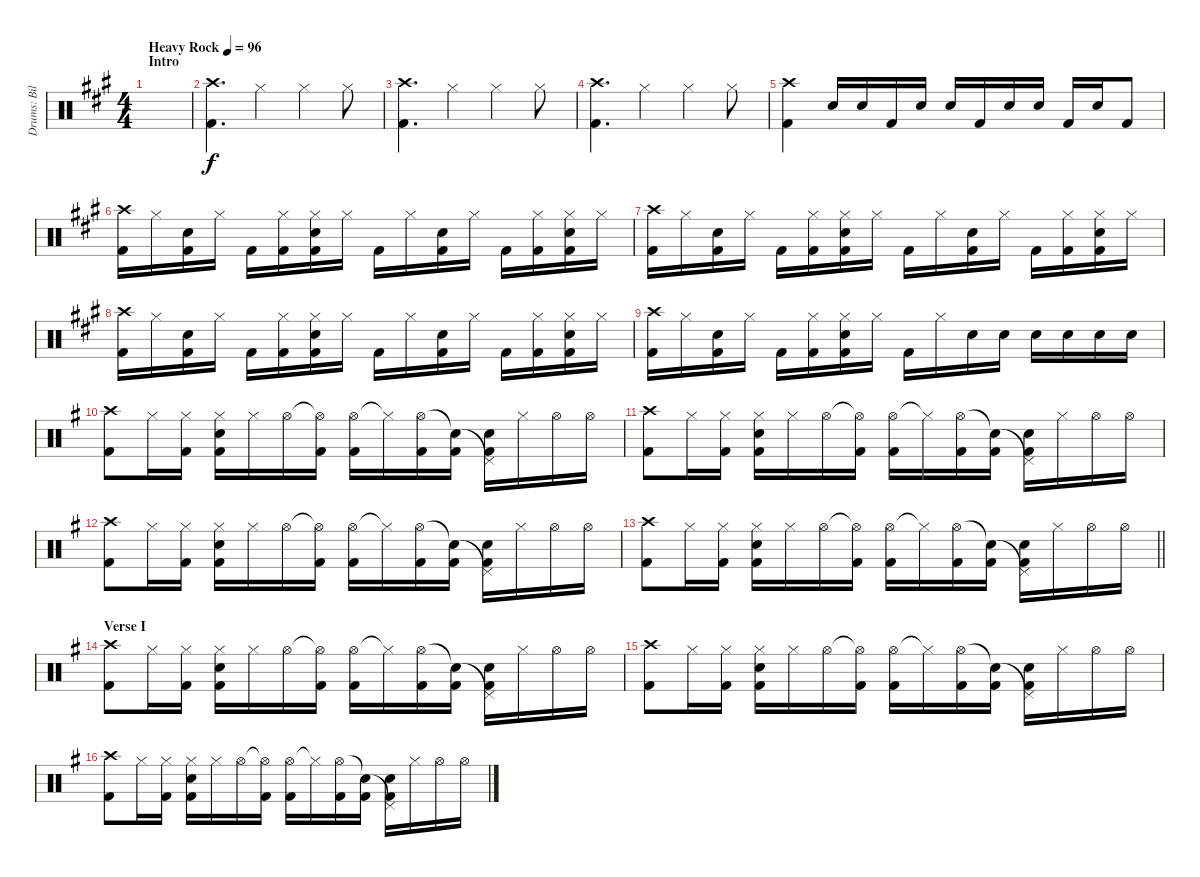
\track ("Drums: Bill" "Drums: Bil") {instrument percussion}
\staff {score}
\articulation defaults
\ts (4 4)
\section ("" "Intro")
\tempo (96 "Heavy Rock")
\clef neutral
\ks a
|
("Crash high (hit)" "Kick (hit) 2").4{d} "Hi-Hat (closed)".4 "Hi-Hat (closed)".4 "Hi-Hat (closed)".8 |
("Crash high (hit)" "Kick (hit) 2").4{d} "Hi-Hat (closed)".4 "Hi-Hat (closed)".4 "Hi-Hat (closed)".8 |
("Crash high (hit)" "Kick (hit) 2").4{d} "Hi-Hat (closed)".4 "Hi-Hat (closed)".4 "Hi-Hat (closed)".8 |
("Crash high (hit)" "Kick (hit) 2").4 "Electric Snare (hit)".16 "Electric Snare (hit)".16 "Kick (hit) 2".16 "Electric Snare (hit)".16 "Electric Snare (hit)".16 "Kick (hit) 2".16 "Electric Snare (hit)".16 "Electric Snare (hit)".16 "Kick (hit) 2".16 "Electric Snare (hit)".16 "Kick (hit) 2".8 |
("Crash high (hit)" "Kick (hit) 2").16 "Hi-Hat (closed)".16 ("Snare (hit) 2" "Kick (hit) 2").16 "Hi-Hat (closed)".16 "Kick (hit) 2".16 ("Hi-Hat (closed)" "Kick (hit) 2").16 ("Hi-Hat (closed)" "Snare (hit) 2" "Kick (hit) 2").16 "Hi-Hat (closed)".16 "Kick (hit) 2".16 "Hi-Hat (closed)".16 ("Snare (hit) 2" "Kick (hit) 2").16 "Hi-Hat (closed)".16 "Kick (hit) 2".16 ("Hi-Hat (closed)" "Kick (hit) 2").16 ("Hi-Hat (closed)" "Snare (hit) 2" "Kick (hit) 2").16 "Hi-Hat (closed)".16 |
("Crash high (hit)" "Kick (hit) 2").16 "Hi-Hat (closed)".16 ("Snare (hit) 2" "Kick (hit) 2").16 "Hi-Hat (closed)".16 "Kick (hit) 2".16 ("Hi-Hat (closed)" "Kick (hit) 2").16 ("Hi-Hat (closed)" "Snare (hit) 2" "Kick (hit) 2").16 "Hi-Hat (closed)".16 "Kick (hit) 2".16 "Hi-Hat (closed)".16 ("Snare (hit) 2" "Kick (hit) 2").16 "Hi-Hat (closed)".16 "Kick (hit) 2".16 ("Hi-Hat (closed)" "Kick (hit) 2").16 ("Hi-Hat (closed)" "Snare (hit) 2" "Kick (hit) 2").16 "Hi-Hat (closed)".16 |
("Crash high (hit)" "Kick (hit) 2").16 "Hi-Hat (closed)".16 ("Snare (hit) 2" "Kick (hit) 2").16 "Hi-Hat (closed)".16 "Kick (hit) 2".16 ("Hi-Hat (closed)" "Kick (hit) 2").16 ("Hi-Hat (closed)" "Snare (hit) 2" "Kick (hit) 2").16 "Hi-Hat (closed)".16 "Kick (hit) 2".16 "Hi-Hat (closed)".16 ("Snare (hit) 2" "Kick (hit) 2").16 "Hi-Hat (closed)".16 "Kick (hit) 2".16 ("Hi-Hat (closed)" "Kick (hit) 2").16 ("Hi-Hat (closed)" "Snare (hit) 2" "Kick (hit) 2").16 "Hi-Hat (closed)".16 |
("Crash high (hit)" "Kick (hit) 2").16 "Hi-Hat (closed)".16 ("Snare (hit) 2" "Kick (hit) 2").16 "Hi-Hat (closed)".16 "Kick (hit) 2".16 ("Hi-Hat (closed)" "Kick (hit) 2").16 ("Hi-Hat (closed)" "Snare (hit) 2" "Kick (hit) 2").16 "Hi-Hat (closed)".16 "Kick (hit) 2".16 "Hi-Hat (closed)".16 "Snare (hit) 2".16 "Snare (hit) 2".16 "Snare (hit) 2".16 "Snare (hit) 2".16 "Snare (hit) 2".16 "Snare (hit) 2".16 |
\ks g
("Crash high (hit)" "Kick (hit) 2").8 "Hi-Hat (closed)".16 ("Hi-Hat (closed)" "Kick (hit) 2").16 ("Hi-Hat (closed)" "Snare (hit) 2" "Kick (hit) 2").16 "Hi-Hat (closed)".16 "Hi-Hat (open)".16 ("Hi-Hat (open)"{t} "Kick (hit) 2").16 ("Hi-Hat (open)" "Kick (hit) 2").16 "Hi-Hat (closed)"{t}.16 ("Hi-Hat (open)" "Kick (hit) 2").16 ("Snare (hit)"{t} "Kick (hit) 2").16 ("Pedal Hi-Hat (hit)"{t} "Snare (hit) 2" "Kick (hit) 2").16 "Hi-Hat (closed)".16 "Hi-Hat (open)".16 "Hi-Hat (open)".16 |
("Crash high (hit)" "Kick (hit) 2").8 "Hi-Hat (closed)".16 ("Hi-Hat (closed)" "Kick (hit) 2").16 ("Hi-Hat (closed)" "Snare (hit) 2" "Kick (hit) 2").16 "Hi-Hat (closed)".16 "Hi-Hat (open)".16 ("Hi-Hat (open)"{t} "Kick (hit) 2").16 ("Hi-Hat (open)" "Kick (hit) 2").16 "Hi-Hat (closed)"{t}.16 ("Hi-Hat (open)" "Kick (hit) 2").16 ("Snare (hit)"{t} "Kick (hit) 2").16 ("Pedal Hi-Hat (hit)"{t} "Snare (hit) 2" "Kick (hit) 2").16 "Hi-Hat (closed)".16 "Hi-Hat (open)".16 "Hi-Hat (open)".16 |
("Crash high (hit)" "Kick (hit) 2").8 "Hi-Hat (closed)".16 ("Hi-Hat (closed)" "Kick (hit) 2").16 ("Hi-Hat (closed)" "Snare (hit) 2" "Kick (hit) 2").16 "Hi-Hat (closed)".16 "Hi-Hat (open)".16 ("Hi-Hat (open)"{t} "Kick (hit) 2").16 ("Hi-Hat (open)" "Kick (hit) 2").16 "Hi-Hat (closed)"{t}.16 ("Hi-Hat (open)" "Kick (hit) 2").16 ("Snare (hit)"{t} "Kick (hit) 2").16 ("Pedal Hi-Hat (hit)"{t} "Snare (hit) 2" "Kick (hit) 2").16 "Hi-Hat (closed)".16 "Hi-Hat (open)".16 "Hi-Hat (open)".16 |
\barLineRight lightlight
("Crash high (hit)" "Kick (hit) 2").8 "Hi-Hat (closed)".16 ("Hi-Hat (closed)" "Kick (hit) 2").16 ("Hi-Hat (closed)" "Snare (hit) 2" "Kick (hit) 2").16 "Hi-Hat (closed)".16 "Hi-Hat (open)".16 ("Hi-Hat (open)"{t} "Kick (hit) 2").16 ("Hi-Hat (open)" "Kick (hit) 2").16 "Hi-Hat (closed)"{t}.16 ("Hi-Hat (open)" "Kick (hit) 2").16 ("Snare (hit)"{t} "Kick (hit) 2").16 ("Pedal Hi-Hat (hit)"{t} "Snare (hit) 2" "Kick (hit) 2").16 "Hi-Hat (closed)".16 "Hi-Hat (open)".16 "Hi-Hat (open)".16 |
\section ("" "Verse I")
("Crash high (hit)" "Kick (hit) 2").8 "Hi-Hat (closed)".16 ("Hi-Hat (closed)" "Kick (hit) 2").16 ("Hi-Hat (closed)" "Snare (hit) 2" "Kick (hit) 2").16 "Hi-Hat (closed)".16 "Hi-Hat (open)".16 ("Hi-Hat (open)"{t} "Kick (hit) 2").16 ("Hi-Hat (open)" "Kick (hit) 2").16 "Hi-Hat (closed)"{t}.16 ("Hi-Hat (open)" "Kick (hit) 2").16 ("Snare (hit)"{t} "Kick (hit) 2").16 ("Pedal Hi-Hat (hit)"{t} "Snare (hit) 2" "Kick (hit) 2").16 "Hi-Hat (closed)".16 "Hi-Hat (open)".16 "Hi-Hat (open)".16 |
("Crash high (hit)" "Kick (hit) 2").8 "Hi-Hat (closed)".16 ("Hi-Hat (closed)" "Kick (hit) 2").16 ("Hi-Hat (closed)" "Snare (hit) 2" "Kick (hit) 2").16 "Hi-Hat (closed)".16 "Hi-Hat (open)".16 ("Hi-Hat (open)"{t} "Kick (hit) 2").16 ("Hi-Hat (open)" "Kick (hit) 2").16 "Hi-Hat (closed)"{t}.16 ("Hi-Hat (open)" "Kick (hit) 2").16 ("Snare (hit)"{t} "Kick (hit) 2").16 ("Pedal Hi-Hat (hit)"{t} "Snare (hit) 2" "Kick (hit) 2").16 "Hi-Hat (closed)".16 "Hi-Hat (open)".16 "Hi-Hat (open)".16 |
("Crash high (hit)" "Kick (hit) 2").8 "Hi-Hat (closed)".16 ("Hi-Hat (closed)" "Kick (hit) 2").16 ("Hi-Hat (closed)" "Snare (hit) 2" "Kick (hit) 2").16 "Hi-Hat (closed)".16 "Hi-Hat (open)".16 ("Hi-Hat (open)"{t} "Kick (hit) 2").16 ("Hi-Hat (open)" "Kick (hit) 2").16 "Hi-Hat (closed)"{t}.16 ("Hi-Hat (open)" "Kick (hit) 2").16 ("Snare (hit)"{t} "Kick (hit) 2").16 ("Pedal Hi-Hat (hit)"{t} "Snare (hit) 2" "Kick (hit) 2").16 "Hi-Hat (closed)".16 "Hi-Hat (open)".16 "Hi-Hat (open)".16
